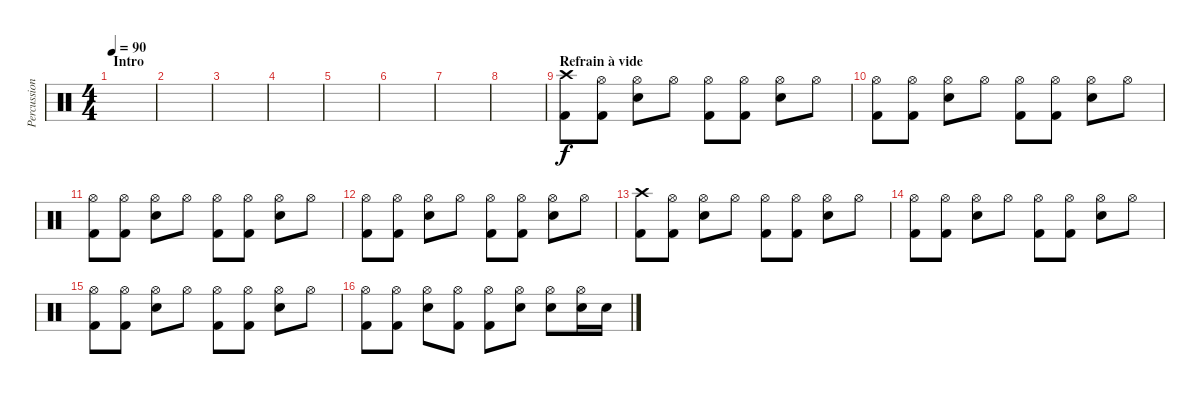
\track ("Percussions" "Percussion") {instrument percussion}
\staff {score}
\articulation defaults
\ts (4 4)
\section ("" "Intro")
\tempo 90
\clef neutral
\ks c
|
|
|
|
|
|
|
|
\section ("" "Refrain à vide")
("Crash high (hit)" "Kick (hit) 2").8 ("Hi-Hat (open)" "Kick (hit) 2").8 ("Hi-Hat (open)" "Snare (hit) 2").8 "Hi-Hat (open)".8 ("Hi-Hat (open)" "Kick (hit) 2").8 ("Hi-Hat (open)" "Kick (hit) 2").8 ("Hi-Hat (open)" "Snare (hit) 2").8 "Hi-Hat (open)".8 |
("Hi-Hat (open)" "Kick (hit) 2").8 ("Hi-Hat (open)" "Kick (hit) 2").8 ("Hi-Hat (open)" "Snare (hit) 2").8 "Hi-Hat (open)".8 ("Hi-Hat (open)" "Kick (hit) 2").8 ("Hi-Hat (open)" "Kick (hit) 2").8 ("Hi-Hat (open)" "Snare (hit) 2").8 "Hi-Hat (open)".8 |
("Hi-Hat (open)" "Kick (hit) 2").8 ("Hi-Hat (open)" "Kick (hit) 2").8 ("Hi-Hat (open)" "Snare (hit) 2").8 "Hi-Hat (open)".8 ("Hi-Hat (open)" "Kick (hit) 2").8 ("Hi-Hat (open)" "Kick (hit) 2").8 ("Hi-Hat (open)" "Snare (hit) 2").8 "Hi-Hat (open)".8 |
("Hi-Hat (open)" "Kick (hit) 2").8 ("Hi-Hat (open)" "Kick (hit) 2").8 ("Hi-Hat (open)" "Snare (hit) 2").8 "Hi-Hat (open)".8 ("Hi-Hat (open)" "Kick (hit) 2").8 ("Hi-Hat (open)" "Kick (hit) 2").8 ("Hi-Hat (open)" "Snare (hit) 2").8 "Hi-Hat (open)".8 |
("Crash high (hit)" "Kick (hit) 2").8 ("Hi-Hat (open)" "Kick (hit) 2").8 ("Hi-Hat (open)" "Snare (hit) 2").8 "Hi-Hat (open)".8 ("Hi-Hat (open)" "Kick (hit) 2").8 ("Hi-Hat (open)" "Kick (hit) 2").8 ("Hi-Hat (open)" "Snare (hit) 2").8 "Hi-Hat (open)".8 |
("Hi-Hat (open)" "Kick (hit) 2").8 ("Hi-Hat (open)" "Kick (hit) 2").8 ("Hi-Hat (open)" "Snare (hit) 2").8 "Hi-Hat (open)".8 ("Hi-Hat (open)" "Kick (hit) 2").8 ("Hi-Hat (open)" "Kick (hit) 2").8 ("Hi-Hat (open)" "Snare (hit) 2").8 "Hi-Hat (open)".8 |
("Hi-Hat (open)" "Kick (hit) 2").8 ("Hi-Hat (open)" "Kick (hit) 2").8 ("Hi-Hat (open)" "Snare (hit) 2").8 "Hi-Hat (open)".8 ("Hi-Hat (open)" "Kick (hit) 2").8 ("Hi-Hat (open)" "Kick (hit) 2").8 ("Hi-Hat (open)" "Snare (hit) 2").8 "Hi-Hat (open)".8 |
("Hi-Hat (open)" "Kick (hit) 2").8 ("Hi-Hat (open)" "Kick (hit) 2").8 ("Hi-Hat (open)" "Snare (hit) 2").8 ("Hi-Hat (open)" "Kick (hit) 2").8 ("Hi-Hat (open)" "Kick (hit) 2").8 ("Hi-Hat (open)" "Snare (hit) 2").8 ("Hi-Hat (open)" "Snare (hit) 2").8 ("Hi-Hat (open)" "Snare (hit) 2").16 "Snare (hit) 2".16
